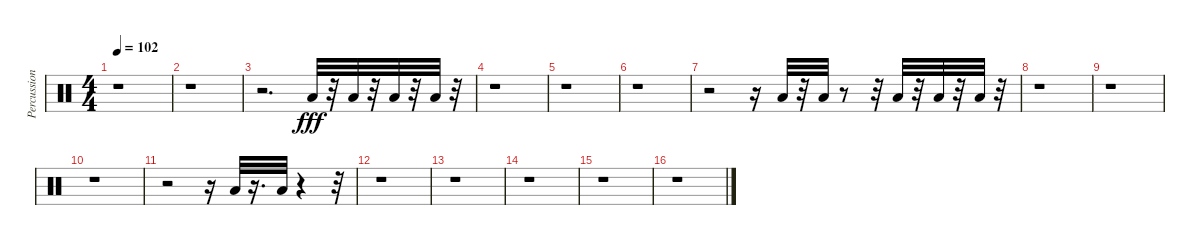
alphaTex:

\track ("Percussion" "Percussion") {instrument percussion}
\staff {score}
\articulation defaults
\ts (4 4)
\tempo 102
\clef neutral
\ks c
r.1{dy fff} |
r.1 |
r.2{d} "Low Tom (hit)".32 r.32 "Low Tom (hit)".32 r.32 "Low Floor Tom (hit)".32 r.32 "Low Floor Tom (hit)".32 r.32 |
r.1 |
r.1 |
r.1 |
r.2 r.16 "Low Tom (hit)".32 r.32 "Low Floor Tom (hit)".32 r.8 r.32 "Low Tom (hit)".32 r.32 "Low Floor Tom (hit)".32 r.32 "Low Floor Tom (hit)".32 r.32 |
r.1 |
r.1 |
r.1 |
r.2 r.16 "Low Tom (hit)".32 r.16{d} "Low Floor Tom (hit)".32 r.4 r.32 |
r.1 |
r.1 |
r.1 |
r.1 |
r.1
